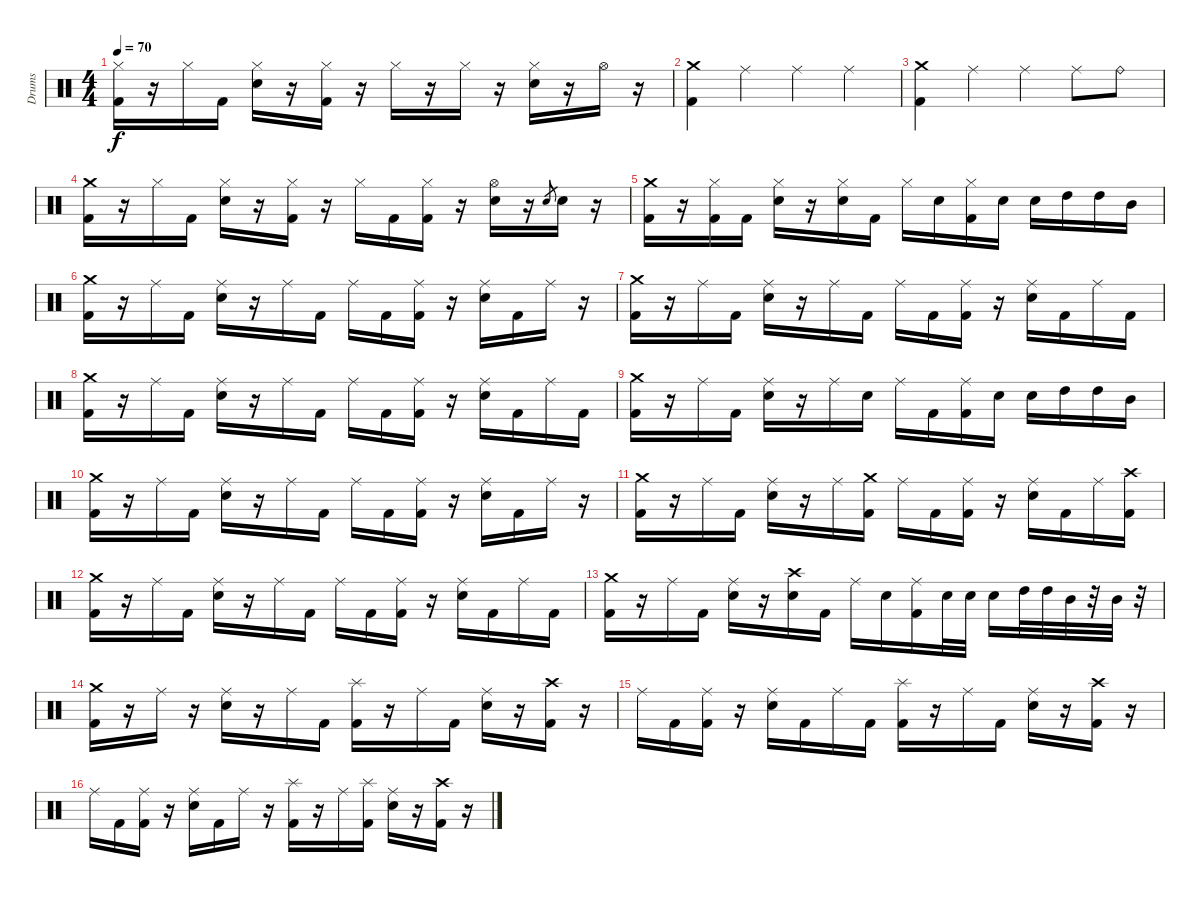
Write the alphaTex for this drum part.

\track ("Drums" "Drums") {instrument percussion}
\staff {score}
\articulation defaults
\ts (4 4)
\tempo 70
\clef neutral
\ks c
("Hi-Hat (closed)" "Kick (hit) 2").16{dy f} r.16 "Hi-Hat (closed)".16 "Kick (hit) 2".16 ("Hi-Hat (closed)" "Electric Snare (hit)").16 r.16 ("Hi-Hat (closed)" "Kick (hit) 2").16 r.16 "Hi-Hat (closed)".16 r.16 "Hi-Hat (closed)".16 r.16 ("Hi-Hat (closed)" "Electric Snare (hit)").16 r.16 "Hi-Hat (open)".16 r.16 |
("Crash medium (hit)" "Kick (hit) 2").4 "Ride (middle)".4 "Ride (middle)".4 "Ride (middle)".4 |
("Crash medium (hit)" "Kick (hit) 2").4 "Ride (middle)".4 "Ride (middle)".4 "Ride (middle)".8 "Ride (bell)".8 |
("Crash medium (hit)" "Kick (hit) 2").16 r.16 "Hi-Hat (closed)".16 "Kick (hit) 2".16 ("Hi-Hat (closed)" "Electric Snare (hit)").16 r.16 ("Hi-Hat (closed)" "Kick (hit) 2").16 r.16 "Hi-Hat (closed)".16 "Kick (hit) 2".16 ("Hi-Hat (closed)" "Kick (hit) 2").16 r.16 ("Hi-Hat (open)" "Electric Snare (hit)").16 r.16 "Electric Snare (hit)".8{gr} "Electric Snare (hit)".16 r.16 |
("Crash medium (hit)" "Kick (hit) 2").16 r.16 ("Hi-Hat (closed)" "Kick (hit) 2").16 "Kick (hit) 2".16 ("Hi-Hat (closed)" "Electric Snare (hit)").16 r.16 ("Hi-Hat (closed)" "Electric Snare (hit)").16 "Kick (hit) 2".16 "Hi-Hat (closed)".16 "Electric Snare (hit)".16 ("Hi-Hat (closed)" "Kick (hit) 2").16 "Electric Snare (hit)".16 "Electric Snare (hit)".16 "High Tom (hit)".16 "High Tom (hit)".16 "Mid Tom (hit)".16 |
("Crash medium (hit)" "Kick (hit) 2").16 r.16 "Ride (middle)".16 "Kick (hit) 2".16 ("Ride (middle)" "Electric Snare (hit)").16 r.16 "Ride (middle)".16 "Kick (hit) 2".16 "Ride (middle)".16 "Kick (hit) 2".16 ("Ride (middle)" "Kick (hit) 2").16 r.16 ("Ride (middle)" "Electric Snare (hit)").16 "Kick (hit) 2".16 "Ride (middle)".16 r.16 |
("Crash medium (hit)" "Kick (hit) 2").16 r.16 "Ride (middle)".16 "Kick (hit) 2".16 ("Ride (middle)" "Electric Snare (hit)").16 r.16 "Ride (middle)".16 "Kick (hit) 2".16 "Ride (middle)".16 "Kick (hit) 2".16 ("Ride (middle)" "Kick (hit) 2").16 r.16 ("Ride (middle)" "Electric Snare (hit)").16 "Kick (hit) 2".16 "Ride (middle)".16 "Kick (hit) 2".16 |
("Crash medium (hit)" "Kick (hit) 2").16 r.16 "Ride (middle)".16 "Kick (hit) 2".16 ("Ride (middle)" "Electric Snare (hit)").16 r.16 "Ride (middle)".16 "Kick (hit) 2".16 "Ride (middle)".16 "Kick (hit) 2".16 ("Ride (middle)" "Kick (hit) 2").16 r.16 ("Ride (middle)" "Electric Snare (hit)").16 "Kick (hit) 2".16 "Ride (middle)".16 "Kick (hit) 2".16 |
("Crash medium (hit)" "Kick (hit) 2").16 r.16 "Ride (middle)".16 "Kick (hit) 2".16 ("Ride (middle)" "Electric Snare (hit)").16 r.16 "Ride (middle)".16 "Electric Snare (hit)".16 "Ride (middle)".16 "Kick (hit) 2".16 ("Ride (middle)" "Kick (hit) 2").16 "Electric Snare (hit)".16 "Electric Snare (hit)".16 "High Tom (hit)".16 "High Tom (hit)".16 "Mid Tom (hit)".16 |
("Crash medium (hit)" "Kick (hit) 2").16 r.16 "Ride (middle)".16 "Kick (hit) 2".16 ("Ride (middle)" "Electric Snare (hit)").16 r.16 "Ride (middle)".16 "Kick (hit) 2".16 "Ride (middle)".16 "Kick (hit) 2".16 ("Ride (middle)" "Kick (hit) 2").16 r.16 ("Ride (middle)" "Electric Snare (hit)").16 "Kick (hit) 2".16 "Ride (middle)".16 r.16 |
("Crash medium (hit)" "Kick (hit) 2").16 r.16 "Ride (middle)".16 "Kick (hit) 2".16 ("Ride (middle)" "Electric Snare (hit)").16 r.16 "Ride (middle)".16 ("Crash medium (hit)" "Kick (hit) 2").16 "Ride (middle)".16 "Kick (hit) 2".16 ("Ride (middle)" "Kick (hit) 2").16 r.16 ("Ride (middle)" "Electric Snare (hit)").16 "Kick (hit) 2".16 "Ride (middle)".16 ("Crash high (hit)" "Kick (hit) 2").16 |
("Crash medium (hit)" "Kick (hit) 2").16 r.16 "Ride (middle)".16 "Kick (hit) 2".16 ("Ride (middle)" "Electric Snare (hit)").16 r.16 "Ride (middle)".16 "Kick (hit) 2".16 "Ride (middle)".16 "Kick (hit) 2".16 ("Ride (middle)" "Kick (hit) 2").16 r.16 ("Ride (middle)" "Electric Snare (hit)").16 "Kick (hit) 2".16 "Ride (middle)".16 "Kick (hit) 2".16 |
("Crash medium (hit)" "Kick (hit) 2").16 r.16 "Ride (middle)".16 "Kick (hit) 2".16 ("Ride (middle)" "Electric Snare (hit)").16 r.16 ("Crash high (hit)" "Electric Snare (hit)").16 "Kick (hit) 2".16 "Ride (middle)".16 "Electric Snare (hit)".16 ("Ride (middle)" "Kick (hit) 2").16 "Electric Snare (hit)".32 "Electric Snare (hit)".32 "Electric Snare (hit)".16 "High Tom (hit)".32 "High Tom (hit)".32 "Mid Tom (hit)".32 r.32 "Mid Tom (hit)".32 r.32 |
("Crash medium (hit)" "Kick (hit) 2").16 r.16 "Ride (middle)".16 r.16 ("Ride (middle)" "Electric Snare (hit)").16 r.16 "Ride (middle)".16 "Kick (hit) 2".16 ("Splash (hit)" "Kick (hit) 2").16 r.16 "Ride (middle)".16 "Kick (hit) 2".16 ("Ride (middle)" "Electric Snare (hit)").16 r.16 ("Crash high (hit)" "Kick (hit) 2").16 r.16 |
"Ride (middle)".16 "Kick (hit) 2".16 ("Ride (middle)" "Kick (hit) 2").16 r.16 ("Ride (middle)" "Electric Snare (hit)").16 "Kick (hit) 2".16 "Ride (middle)".16 "Kick (hit) 2".16 ("Splash (hit)" "Kick (hit) 2").16 r.16 "Ride (middle)".16 "Kick (hit) 2".16 ("Ride (middle)" "Electric Snare (hit)").16 r.16 ("Crash high (hit)" "Kick (hit) 2").16 r.16 |
"Ride (middle)".16 "Kick (hit) 2".16 ("Ride (middle)" "Kick (hit) 2").16 r.16 ("Ride (middle)" "Electric Snare (hit)").16 "Kick (hit) 2".16 "Ride (middle)".16 r.16 ("Splash (hit)" "Kick (hit) 2").16 r.16 "Ride (middle)".16 ("Splash (hit)" "Kick (hit) 2").16 ("Ride (middle)" "Electric Snare (hit)").16 r.16 ("Crash high (hit)" "Kick (hit) 2").16 r.16
